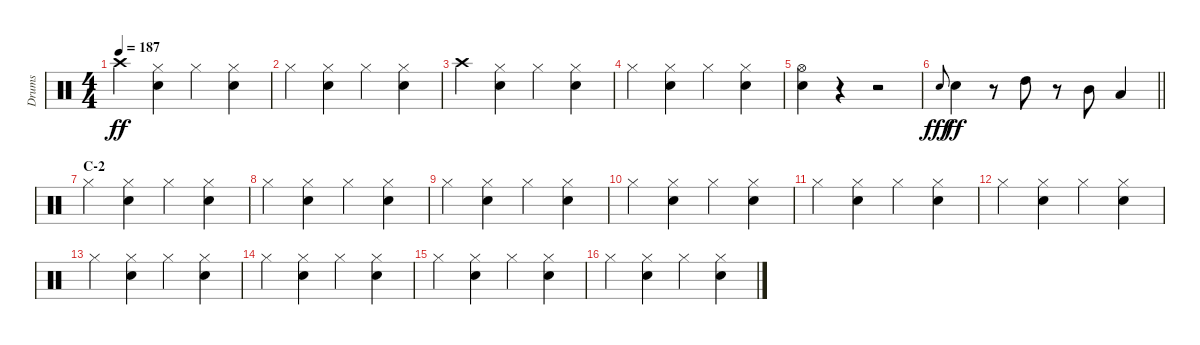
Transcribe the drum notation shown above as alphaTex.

\track ("Drums" "Drums") {instrument percussion}
\staff {score}
\articulation defaults
\ts (4 4)
\tempo 187
\clef neutral
\ks c "Crash high (hit)".4{dy ff}
("Snare (hit) 2" "Hi-Hat (closed)").4 "Hi-Hat (closed)".4 ("Hi-Hat (closed)" "Snare (hit) 2").4 |
"Hi-Hat (closed)".4 ("Hi-Hat (closed)" "Snare (hit) 2").4 "Hi-Hat (closed)".4 ("Hi-Hat (closed)" "Snare (hit) 2").4 |
"Crash high (hit)".4 ("Snare (hit) 2" "Hi-Hat (closed)").4 "Hi-Hat (closed)".4 ("Hi-Hat (closed)" "Snare (hit) 2").4 |
"Hi-Hat (closed)".4 ("Hi-Hat (closed)" "Snare (hit) 2").4 "Hi-Hat (closed)".4 ("Hi-Hat (closed)" "Snare (hit) 2").4 |
("Hi-Hat (open)" "Snare (hit) 2").4 r.4 r.2 |
\barLineRight lightlight "Snare (hit) 2".8{gr onbeat dy fff} "Snare (hit) 2".4{dy ff}
r.8 "High Tom (hit)".8 r.8 "Mid Tom (hit)".8 "Low Tom (hit)".4 |
\section ("" "C-2")
"Hi-Hat (closed)".4 ("Hi-Hat (closed)" "Snare (hit) 2").4 "Hi-Hat (closed)".4 ("Hi-Hat (closed)" "Snare (hit) 2").4 |
"Hi-Hat (closed)".4 ("Hi-Hat (closed)" "Snare (hit) 2").4 "Hi-Hat (closed)".4 ("Hi-Hat (closed)" "Snare (hit) 2").4 |
"Hi-Hat (closed)".4 ("Hi-Hat (closed)" "Snare (hit) 2").4 "Hi-Hat (closed)".4 ("Hi-Hat (closed)" "Snare (hit) 2").4 |
"Hi-Hat (closed)".4 ("Hi-Hat (closed)" "Snare (hit) 2").4 "Hi-Hat (closed)".4 ("Hi-Hat (closed)" "Snare (hit) 2").4 |
"Hi-Hat (closed)".4 ("Hi-Hat (closed)" "Snare (hit) 2").4 "Hi-Hat (closed)".4 ("Hi-Hat (closed)" "Snare (hit) 2").4 |
"Hi-Hat (closed)".4 ("Hi-Hat (closed)" "Snare (hit) 2").4 "Hi-Hat (closed)".4 ("Hi-Hat (closed)" "Snare (hit) 2").4 |
"Hi-Hat (closed)".4 ("Hi-Hat (closed)" "Snare (hit) 2").4 "Hi-Hat (closed)".4 ("Hi-Hat (closed)" "Snare (hit) 2").4 |
"Hi-Hat (closed)".4 ("Hi-Hat (closed)" "Snare (hit) 2").4 "Hi-Hat (closed)".4 ("Hi-Hat (closed)" "Snare (hit) 2").4 |
"Hi-Hat (closed)".4 ("Hi-Hat (closed)" "Snare (hit) 2").4 "Hi-Hat (closed)".4 ("Hi-Hat (closed)" "Snare (hit) 2").4 |
"Hi-Hat (closed)".4 ("Hi-Hat (closed)" "Snare (hit) 2").4 "Hi-Hat (closed)".4 ("Hi-Hat (closed)" "Snare (hit) 2").4
